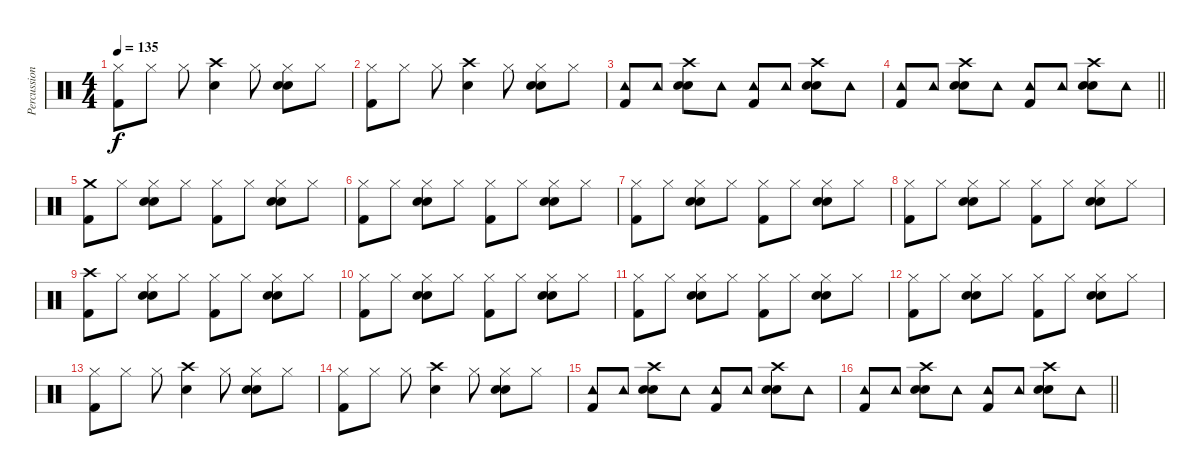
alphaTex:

\track ("Percussion" "Percussion") {instrument percussion}
\staff {score}
\articulation defaults
\ts (4 4)
\tempo 135
\clef neutral
\ks c
("Hi-Hat (closed)" "Kick (hit) 2").8{dy f} "Hi-Hat (closed)".8 "Hi-Hat (closed)".8 ("Crash high (hit)" "Snare (hit) 2").4 "Hi-Hat (closed)".8 ("Hi-Hat (closed)" "Snare (hit) 2" "Hand Clap (hit)").8 "Hi-Hat (closed)".8 |
("Hi-Hat (closed)" "Kick (hit) 2").8 "Hi-Hat (closed)".8 "Hi-Hat (closed)".8 ("Crash high (hit)" "Snare (hit) 2").4 "Hi-Hat (closed)".8 ("Hi-Hat (closed)" "Snare (hit) 2" "Hand Clap (hit)").8 "Hi-Hat (closed)".8 |
("Tambourine (hit)" "Kick (hit) 2").8 "Tambourine (hit)".8 ("Crash high (hit)" "Snare (hit) 2" "Hand Clap (hit)").8 "Tambourine (hit)".8 ("Tambourine (hit)" "Kick (hit) 2").8 "Tambourine (hit)".8 ("Crash high (hit)" "Snare (hit) 2" "Hand Clap (hit)").8 "Tambourine (hit)".8 |
\barLineRight lightlight
("Tambourine (hit)" "Kick (hit) 2").8 "Tambourine (hit)".8 ("Crash high (hit)" "Snare (hit) 2" "Hand Clap (hit)").8 "Tambourine (hit)".8 ("Tambourine (hit)" "Kick (hit) 2").8 "Tambourine (hit)".8 ("Crash high (hit)" "Snare (hit) 2" "Hand Clap (hit)").8 "Tambourine (hit)".8 |
("Crash medium (hit)" "Kick (hit) 2").8 "Hi-Hat (closed)".8 ("Hi-Hat (closed)" "Snare (hit) 2" "Hand Clap (hit)").8 "Hi-Hat (closed)".8 ("Hi-Hat (closed)" "Kick (hit) 2").8 "Hi-Hat (closed)".8 ("Hi-Hat (closed)" "Snare (hit) 2" "Hand Clap (hit)").8 "Hi-Hat (closed)".8 |
("Hi-Hat (closed)" "Kick (hit) 2").8 "Hi-Hat (closed)".8 ("Hi-Hat (closed)" "Snare (hit) 2" "Hand Clap (hit)").8 "Hi-Hat (closed)".8 ("Hi-Hat (closed)" "Kick (hit) 2").8 "Hi-Hat (closed)".8 ("Hi-Hat (closed)" "Snare (hit) 2" "Hand Clap (hit)").8 "Hi-Hat (closed)".8 |
("Hi-Hat (closed)" "Kick (hit) 2").8 "Hi-Hat (closed)".8 ("Hi-Hat (closed)" "Snare (hit) 2" "Hand Clap (hit)").8 "Hi-Hat (closed)".8 ("Hi-Hat (closed)" "Kick (hit) 2").8 "Hi-Hat (closed)".8 ("Hi-Hat (closed)" "Snare (hit) 2" "Hand Clap (hit)").8 "Hi-Hat (closed)".8 |
("Hi-Hat (closed)" "Kick (hit) 2").8 "Hi-Hat (closed)".8 ("Hi-Hat (closed)" "Snare (hit) 2" "Hand Clap (hit)").8 "Hi-Hat (closed)".8 ("Hi-Hat (closed)" "Kick (hit) 2").8 "Hi-Hat (closed)".8 ("Hi-Hat (closed)" "Snare (hit) 2" "Hand Clap (hit)").8 "Hi-Hat (closed)".8 |
("Crash high (hit)" "Kick (hit) 2").8 "Hi-Hat (closed)".8 ("Hi-Hat (closed)" "Snare (hit) 2" "Hand Clap (hit)").8 "Hi-Hat (closed)".8 ("Hi-Hat (closed)" "Kick (hit) 2").8 "Hi-Hat (closed)".8 ("Hi-Hat (closed)" "Snare (hit) 2" "Hand Clap (hit)").8 "Hi-Hat (closed)".8 |
("Hi-Hat (closed)" "Kick (hit) 2").8 "Hi-Hat (closed)".8 ("Hi-Hat (closed)" "Snare (hit) 2" "Hand Clap (hit)").8 "Hi-Hat (closed)".8 ("Hi-Hat (closed)" "Kick (hit) 2").8 "Hi-Hat (closed)".8 ("Hi-Hat (closed)" "Snare (hit) 2" "Hand Clap (hit)").8 "Hi-Hat (closed)".8 |
("Hi-Hat (closed)" "Kick (hit) 2").8 "Hi-Hat (closed)".8 ("Hi-Hat (closed)" "Snare (hit) 2" "Hand Clap (hit)").8 "Hi-Hat (closed)".8 ("Hi-Hat (closed)" "Kick (hit) 2").8 "Hi-Hat (closed)".8 ("Hi-Hat (closed)" "Snare (hit) 2" "Hand Clap (hit)").8 "Hi-Hat (closed)".8 |
("Hi-Hat (closed)" "Kick (hit) 2").8 "Hi-Hat (closed)".8 ("Hi-Hat (closed)" "Snare (hit) 2" "Hand Clap (hit)").8 "Hi-Hat (closed)".8 ("Hi-Hat (closed)" "Kick (hit) 2").8 "Hi-Hat (closed)".8 ("Hi-Hat (closed)" "Snare (hit) 2" "Hand Clap (hit)").8 "Hi-Hat (closed)".8 |
("Hi-Hat (closed)" "Kick (hit) 2").8 "Hi-Hat (closed)".8 "Hi-Hat (closed)".8 ("Crash high (hit)" "Snare (hit) 2").4 "Hi-Hat (closed)".8 ("Hi-Hat (closed)" "Snare (hit) 2" "Hand Clap (hit)").8 "Hi-Hat (closed)".8 |
("Hi-Hat (closed)" "Kick (hit) 2").8 "Hi-Hat (closed)".8 "Hi-Hat (closed)".8 ("Crash high (hit)" "Snare (hit) 2").4 "Hi-Hat (closed)".8 ("Hi-Hat (closed)" "Snare (hit) 2" "Hand Clap (hit)").8 "Hi-Hat (closed)".8 |
("Tambourine (hit)" "Kick (hit) 2").8 "Tambourine (hit)".8 ("Crash high (hit)" "Snare (hit) 2" "Hand Clap (hit)").8 "Tambourine (hit)".8 ("Tambourine (hit)" "Kick (hit) 2").8 "Tambourine (hit)".8 ("Crash high (hit)" "Snare (hit) 2" "Hand Clap (hit)").8 "Tambourine (hit)".8 |
\barLineRight lightlight
("Tambourine (hit)" "Kick (hit) 2").8 "Tambourine (hit)".8 ("Crash high (hit)" "Snare (hit) 2" "Hand Clap (hit)").8 "Tambourine (hit)".8 ("Tambourine (hit)" "Kick (hit) 2").8 "Tambourine (hit)".8 ("Crash high (hit)" "Snare (hit) 2" "Hand Clap (hit)").8 "Tambourine (hit)".8
